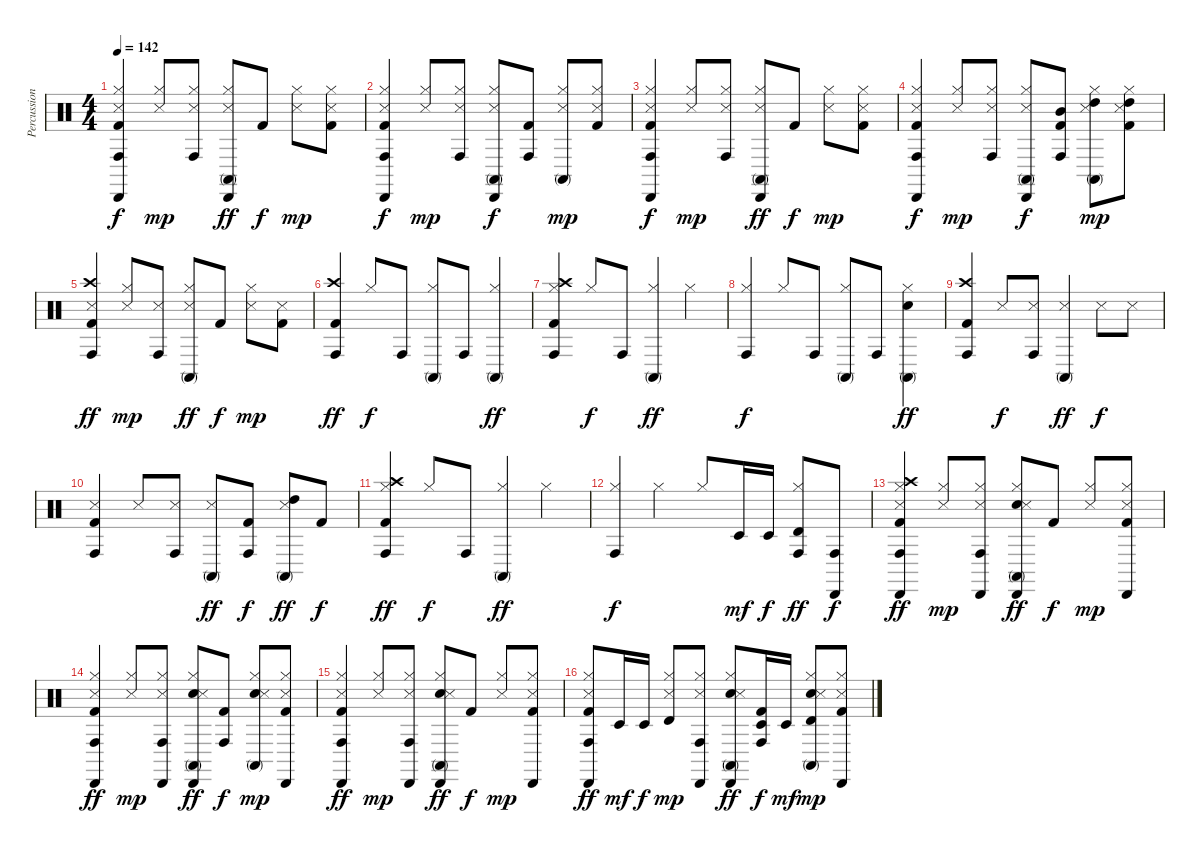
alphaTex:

\track ("Percussion Booster" "Percussion") {instrument percussion}
\staff {score}
\articulation defaults
\ts (4 4)
\tempo 142
\clef neutral
\ks c
("Conga high (hit)" "Cabasa (hit)" "Hi-Hat (closed)" "Snare (side stick) 3" "Kick (hit) 2").4{dy f} ("Hi-Hat (closed)" "Snare (side stick) 3").8{dy mp} ("Conga high (hit)" "Hi-Hat (closed)" "Snare (side stick) 3").8 ("Conga high (mute)" "Cabasa (hit)" "Hi-Hat (closed)" "Snare (side stick) 3").8{dy ff} "Kick (hit) 2".8{dy f} ("Hi-Hat (closed)" "Snare (side stick) 3").8{dy mp} ("Hi-Hat (closed)" "Snare (side stick) 3" "Kick (hit) 2").8 |
("Conga high (hit)" "Cabasa (hit)" "Hi-Hat (closed)" "Snare (side stick) 3" "Kick (hit) 2").4{dy f} ("Hi-Hat (closed)" "Snare (side stick) 3").8{dy mp} ("Conga high (hit)" "Hi-Hat (closed)" "Snare (side stick) 3").8 ("Conga high (mute)" "Cabasa (hit)" "Hi-Hat (closed)" "Snare (side stick) 3").8{dy f} ("Conga high (hit)" "Kick (hit) 2").8 ("Conga high (mute)" "Hi-Hat (closed)" "Snare (side stick) 3").8{dy mp} ("Hi-Hat (closed)" "Snare (side stick) 3" "Kick (hit) 2").8 |
("Conga high (hit)" "Cabasa (hit)" "Hi-Hat (closed)" "Snare (side stick) 3" "Kick (hit) 2").4{dy f} ("Hi-Hat (closed)" "Snare (side stick) 3").8{dy mp} ("Conga high (hit)" "Hi-Hat (closed)" "Snare (side stick) 3").8 ("Conga high (mute)" "Cabasa (hit)" "Hi-Hat (closed)" "Snare (side stick) 3").8{dy ff} "Kick (hit) 2".8{dy f} ("Hi-Hat (closed)" "Snare (side stick) 3").8{dy mp} ("Hi-Hat (closed)" "Snare (side stick) 3" "Kick (hit) 2").8 |
("Conga high (hit)" "Cabasa (hit)" "Hi-Hat (closed)" "Snare (side stick) 3" "Kick (hit) 2").4{dy f} ("Hi-Hat (closed)" "Snare (side stick) 3").8{dy mp} ("Conga high (hit)" "Hi-Hat (closed)" "Snare (side stick) 3").8 ("Conga high (mute)" "Cabasa (hit)" "Hi-Hat (closed)" "Snare (side stick) 3").8{dy f} ("Conga high (hit)" "Mid Tom (hit)" "Kick (hit) 2").8 ("Conga high (mute)" "High Tom (hit)" "Hi-Hat (closed)" "Snare (side stick) 3").8{dy mp} ("High Tom (hit)" "Hi-Hat (closed)" "Snare (side stick) 3" "Kick (hit) 2").8 |
("Conga high (hit)" "Crash high (hit)" "Snare (side stick) 3" "Kick (hit) 2").4{dy ff} ("Hi-Hat (closed)" "Snare (side stick) 3").8{dy mp} ("Conga high (hit)" "Snare (side stick) 3").8 ("Conga high (mute)" "Hi-Hat (closed)" "Snare (side stick) 3").8{dy ff} "Kick (hit) 2".8{dy f} ("Hi-Hat (closed)" "Snare (side stick) 3").8{dy mp} ("Snare (side stick) 3" "Kick (hit) 2").8 |
("Conga high (hit)" "Crash high (hit)" "Kick (hit) 2").4{dy ff} "Hi-Hat (closed)".8{dy f} "Conga high (hit)".8 ("Conga high (mute)" "Hi-Hat (closed)").8 "Conga high (hit)".8 ("Conga high (mute)" "Hi-Hat (closed)").4{dy ff} |
("Conga high (hit)" "Crash high (hit)" "Hi-Hat (closed)" "Kick (hit) 2").4 "Hi-Hat (closed)".8{dy f} "Conga high (hit)".8 ("Conga high (mute)" "Hi-Hat (closed)").4{dy ff} "Hi-Hat (closed)".4 |
("Conga high (hit)" "Hi-Hat (closed)").4{dy f} "Hi-Hat (closed)".8 "Conga high (hit)".8 ("Conga high (mute)" "Hi-Hat (closed)").8 "Conga high (hit)".8 ("Conga high (mute)" "Hi-Hat (closed)" "Snare (hit) 2").4{dy ff} |
("Conga high (hit)" "Crash high (hit)" "Kick (hit) 2").4 "Snare (side stick) 3".8{dy f} ("Conga high (hit)" "Snare (side stick) 3").8 ("Conga high (mute)" "Snare (side stick) 3").4{dy ff} "Snare (side stick) 3".8{dy f} "Snare (side stick) 3".8 |
("Conga high (hit)" "Snare (side stick) 3" "Kick (hit) 2").4 "Snare (side stick) 3".8 ("Conga high (hit)" "Snare (side stick) 3").8 ("Conga high (mute)" "Snare (side stick) 3").8{dy ff} ("Conga high (hit)" "Kick (hit) 2").8{dy f} ("Conga high (mute)" "High Tom (hit)" "Snare (side stick) 3").8{dy ff} "Kick (hit) 2".8{dy f} |
("Conga high (hit)" "Crash high (hit)" "Hi-Hat (closed)" "Kick (hit) 2").4{dy ff} "Hi-Hat (closed)".8{dy f} "Conga high (hit)".8 ("Conga high (mute)" "Hi-Hat (closed)").4{dy ff} "Hi-Hat (closed)".4 |
("Conga high (hit)" "Hi-Hat (closed)").4{dy f} "Hi-Hat (closed)".4 "Hi-Hat (closed)".8 "Timbale low (hit)".16{dy mf} "Timbale low (hit)".16{dy f} ("Timbale high (hit)" "Conga high (hit)" "Hi-Hat (closed)").8{dy ff} ("Conga high (hit)" "Cabasa (hit)").8{dy f} |
("Conga high (hit)" "Cabasa (hit)" "Crash high (hit)" "Hi-Hat (closed)" "Snare (side stick) 3" "Kick (hit) 2").4{dy ff} ("Hi-Hat (closed)" "Snare (side stick) 3").8{dy mp} ("Conga high (hit)" "Cabasa (hit)" "Hi-Hat (closed)" "Snare (side stick) 3").8 ("Conga high (mute)" "Cabasa (hit)" "Hi-Hat (closed)" "Hand Clap (hit)" "Snare (side stick) 3").8{dy ff} "Kick (hit) 2".8{dy f} ("Hi-Hat (closed)" "Snare (side stick) 3").8{dy mp} ("Cabasa (hit)" "Hi-Hat (closed)" "Snare (side stick) 3" "Kick (hit) 2").8 |
("Conga high (hit)" "Cabasa (hit)" "Hi-Hat (closed)" "Snare (side stick) 3" "Kick (hit) 2").4{dy ff} ("Hi-Hat (closed)" "Snare (side stick) 3").8{dy mp} ("Conga high (hit)" "Cabasa (hit)" "Hi-Hat (closed)" "Snare (side stick) 3").8 ("Conga high (mute)" "Cabasa (hit)" "Hi-Hat (closed)" "Hand Clap (hit)" "Snare (side stick) 3").8{dy ff} ("Conga high (hit)" "Kick (hit) 2").8{dy f} ("Conga high (mute)" "Hi-Hat (closed)" "Hand Clap (hit)" "Snare (side stick) 3").8{dy mp} ("Cabasa (hit)" "Hi-Hat (closed)" "Snare (side stick) 3" "Kick (hit) 2").8 |
("Conga high (hit)" "Cabasa (hit)" "Hi-Hat (closed)" "Snare (side stick) 3" "Kick (hit) 2").4{dy ff} ("Hi-Hat (closed)" "Snare (side stick) 3").8{dy mp} ("Conga high (hit)" "Cabasa (hit)" "Hi-Hat (closed)" "Snare (side stick) 3").8 ("Conga high (mute)" "Cabasa (hit)" "Hi-Hat (closed)" "Hand Clap (hit)" "Snare (side stick) 3").8{dy ff} "Kick (hit) 2".8{dy f} ("Hi-Hat (closed)" "Snare (side stick) 3").8{dy mp} ("Cabasa (hit)" "Hi-Hat (closed)" "Snare (side stick) 3" "Kick (hit) 2").8 |
("Conga high (hit)" "Cabasa (hit)" "Hi-Hat (closed)" "Snare (side stick) 3" "Kick (hit) 2").8{dy ff} "Timbale low (hit)".16{dy mf} "Timbale low (hit)".16{dy f} ("Timbale high (hit)" "Hi-Hat (closed)" "Snare (side stick) 3").8{dy mp} ("Conga high (hit)" "Cabasa (hit)" "Hi-Hat (closed)" "Snare (side stick) 3").8 ("Conga high (mute)" "Cabasa (hit)" "Hi-Hat (closed)" "Hand Clap (hit)" "Snare (side stick) 3").8{dy ff} ("Timbale low (hit)" "Conga high (hit)" "Kick (hit) 2").16{dy f} "Timbale low (hit)".16{dy mf} ("Timbale high (hit)" "Conga high (mute)" "Hi-Hat (closed)" "Hand Clap (hit)" "Snare (side stick) 3").8{dy mp} ("Cabasa (hit)" "Hi-Hat (closed)" "Snare (side stick) 3" "Kick (hit) 2").8
